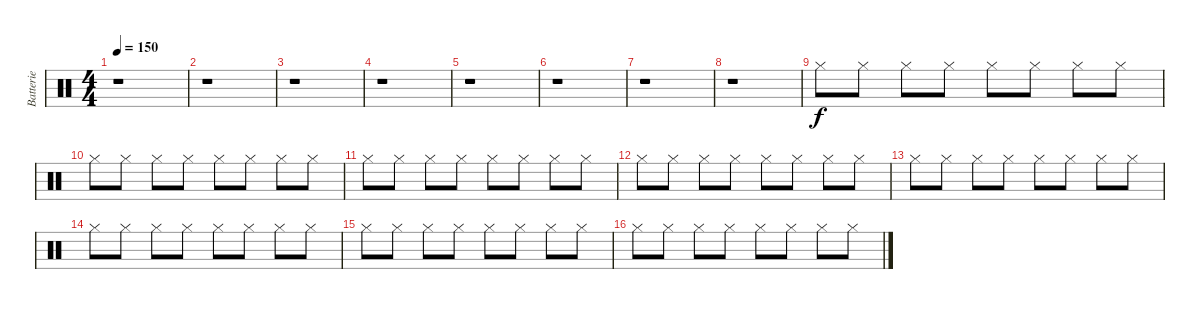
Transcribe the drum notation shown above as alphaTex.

\track ("Batterie" "Batterie") {instrument percussion}
\staff {score}
\articulation defaults
\ts (4 4)
\tempo 150
\clef neutral
\ks c
r.1{dy f} |
r.1 |
r.1 |
r.1 |
r.1 |
r.1 |
r.1 |
r.1 |
"Hi-Hat (closed)".8 "Hi-Hat (closed)".8 "Hi-Hat (closed)".8 "Hi-Hat (closed)".8 "Hi-Hat (closed)".8 "Hi-Hat (closed)".8 "Hi-Hat (closed)".8 "Hi-Hat (closed)".8 |
"Hi-Hat (closed)".8 "Hi-Hat (closed)".8 "Hi-Hat (closed)".8 "Hi-Hat (closed)".8 "Hi-Hat (closed)".8 "Hi-Hat (closed)".8 "Hi-Hat (closed)".8 "Hi-Hat (closed)".8 |
"Hi-Hat (closed)".8 "Hi-Hat (closed)".8 "Hi-Hat (closed)".8 "Hi-Hat (closed)".8 "Hi-Hat (closed)".8 "Hi-Hat (closed)".8 "Hi-Hat (closed)".8 "Hi-Hat (closed)".8 |
"Hi-Hat (closed)".8 "Hi-Hat (closed)".8 "Hi-Hat (closed)".8 "Hi-Hat (closed)".8 "Hi-Hat (closed)".8 "Hi-Hat (closed)".8 "Hi-Hat (closed)".8 "Hi-Hat (closed)".8 |
"Hi-Hat (closed)".8 "Hi-Hat (closed)".8 "Hi-Hat (closed)".8 "Hi-Hat (closed)".8 "Hi-Hat (closed)".8 "Hi-Hat (closed)".8 "Hi-Hat (closed)".8 "Hi-Hat (closed)".8 |
"Hi-Hat (closed)".8 "Hi-Hat (closed)".8 "Hi-Hat (closed)".8 "Hi-Hat (closed)".8 "Hi-Hat (closed)".8 "Hi-Hat (closed)".8 "Hi-Hat (closed)".8 "Hi-Hat (closed)".8 |
"Hi-Hat (closed)".8 "Hi-Hat (closed)".8 "Hi-Hat (closed)".8 "Hi-Hat (closed)".8 "Hi-Hat (closed)".8 "Hi-Hat (closed)".8 "Hi-Hat (closed)".8 "Hi-Hat (closed)".8 |
"Hi-Hat (closed)".8 "Hi-Hat (closed)".8 "Hi-Hat (closed)".8 "Hi-Hat (closed)".8 "Hi-Hat (closed)".8 "Hi-Hat (closed)".8 "Hi-Hat (closed)".8 "Hi-Hat (closed)".8
